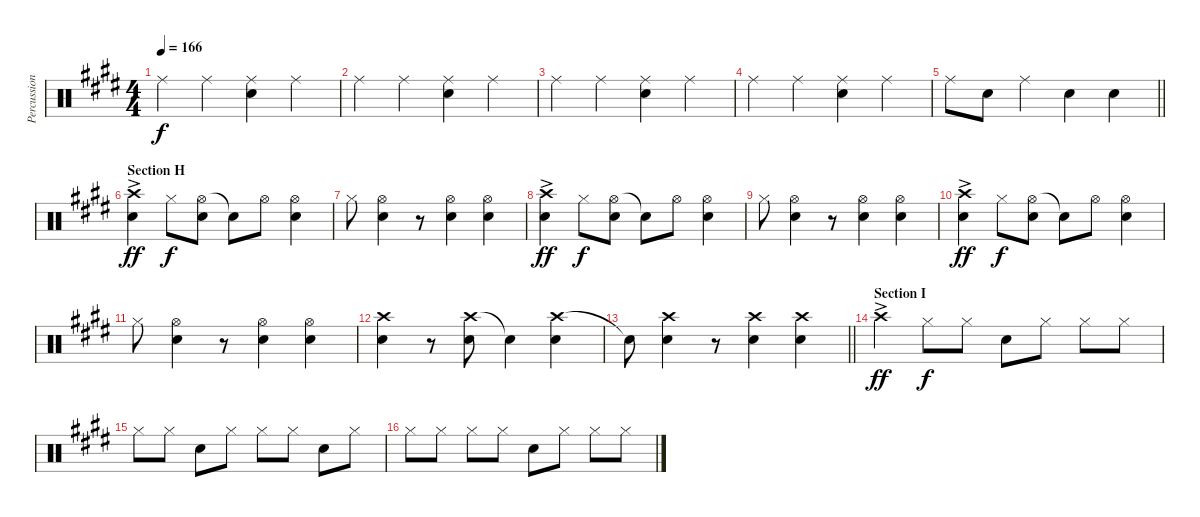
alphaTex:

\track ("Percussion - Other" "Percussion") {instrument percussion}
\staff {score}
\articulation defaults
\ts (4 4)
\tempo 166
\clef neutral
\ks e "Ride (middle)".4{dy f} "Ride (middle)".4
("Ride (middle)" "Snare (hit) 2").4 "Ride (middle)".4 |
"Ride (middle)".4 "Ride (middle)".4 ("Ride (middle)" "Snare (hit) 2").4 "Ride (middle)".4 |
"Ride (middle)".4 "Ride (middle)".4 ("Ride (middle)" "Snare (hit) 2").4 "Ride (middle)".4 |
"Ride (middle)".4 "Ride (middle)".4 ("Ride (middle)" "Snare (hit) 2").4 "Ride (middle)".4 |
\barLineRight lightlight "Ride (middle)".8 "Snare (hit) 2".8 "Ride (middle)".4 "Snare (hit) 2".4 "Snare (hit) 2".4
|
\section ("" "Section H")
("Crash high (hit)"{ac} "Snare (hit) 2").4{dy ff} "Hi-Hat (closed)".8{dy f} ("Hi-Hat (open)" "Snare (hit) 2").8 "Snare (hit)"{t}.8 "Hi-Hat (open)".8 ("Hi-Hat (open)" "Snare (hit) 2").4 |
"Hi-Hat (closed)".8 ("Hi-Hat (open)" "Snare (hit) 2").4 r.8 ("Hi-Hat (open)" "Snare (hit) 2").4 ("Hi-Hat (open)" "Snare (hit) 2").4 |
("Crash high (hit)"{ac} "Snare (hit) 2").4{dy ff} "Hi-Hat (closed)".8{dy f} ("Hi-Hat (open)" "Snare (hit) 2").8 "Snare (hit)"{t}.8 "Hi-Hat (open)".8 ("Hi-Hat (open)" "Snare (hit) 2").4 |
"Hi-Hat (closed)".8 ("Hi-Hat (open)" "Snare (hit) 2").4 r.8 ("Hi-Hat (open)" "Snare (hit) 2").4 ("Hi-Hat (open)" "Snare (hit) 2").4 |
("Crash high (hit)"{ac} "Snare (hit) 2").4{dy ff} "Hi-Hat (closed)".8{dy f} ("Hi-Hat (open)" "Snare (hit) 2").8 "Snare (hit)"{t}.8 "Hi-Hat (open)".8 ("Hi-Hat (open)" "Snare (hit) 2").4 |
"Hi-Hat (closed)".8 ("Hi-Hat (open)" "Snare (hit) 2").4 r.8 ("Hi-Hat (open)" "Snare (hit) 2").4 ("Hi-Hat (open)" "Snare (hit) 2").4 |
("Crash high (hit)" "Snare (hit) 2").4 r.8 ("Crash high (hit)" "Snare (hit) 2").8 "Snare (hit)"{t}.4 ("Crash high (hit)" "Snare (hit) 2").4 |
\barLineRight lightlight "Snare (hit)"{t}.8
("Crash high (hit)" "Snare (hit) 2").4 r.8 ("Crash high (hit)" "Snare (hit) 2").4 ("Crash high (hit)" "Snare (hit) 2").4 |
\section ("" "Section I")
"Crash high (hit)"{ac}.4{dy ff} "Hi-Hat (closed)".8{dy f} "Hi-Hat (closed)".8 "Snare (hit) 2".8 "Hi-Hat (closed)".8 "Hi-Hat (closed)".8 "Hi-Hat (closed)".8 |
"Hi-Hat (closed)".8 "Hi-Hat (closed)".8 "Snare (hit) 2".8 "Hi-Hat (closed)".8 "Hi-Hat (closed)".8 "Hi-Hat (closed)".8 "Snare (hit) 2".8 "Hi-Hat (closed)".8 |
"Hi-Hat (closed)".8 "Hi-Hat (closed)".8 "Hi-Hat (closed)".8 "Hi-Hat (closed)".8 "Snare (hit) 2".8 "Hi-Hat (closed)".8 "Hi-Hat (closed)".8 "Hi-Hat (closed)".8
